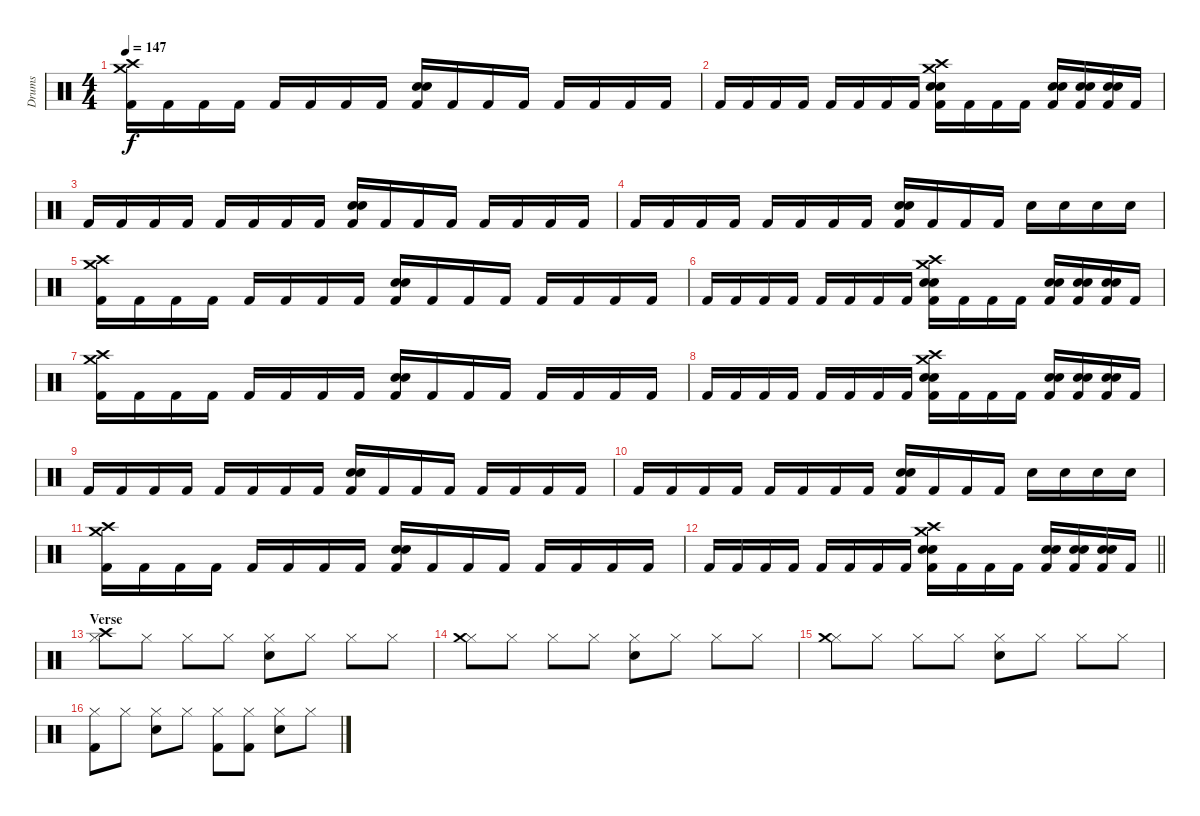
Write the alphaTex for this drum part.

\track ("Drums" "Drums") {instrument percussion}
\staff
\articulation defaults
\ts (4 4)
\tempo 147
\clef neutral
\ks c
("Crash high (hit)" "Kick (hit) 2" "Crash medium (hit)").16{dy f} "Kick (hit) 2".16 "Kick (hit) 2".16 "Kick (hit) 2".16 "Kick (hit) 2".16 "Kick (hit) 2".16 "Kick (hit) 2".16 "Kick (hit) 2".16 ("Kick (hit) 2" "Electric Snare (hit)" "Snare (hit) 2").16 "Kick (hit) 2".16 "Kick (hit) 2".16 "Kick (hit) 2".16 "Kick (hit) 2".16 "Kick (hit) 2".16 "Kick (hit) 2".16 "Kick (hit) 2".16 |
"Kick (hit) 2".16 "Kick (hit) 2".16 "Kick (hit) 2".16 "Kick (hit) 2".16 "Kick (hit) 2".16 "Kick (hit) 2".16 "Kick (hit) 2".16 "Kick (hit) 2".16 ("Crash medium (hit)" "Crash high (hit)" "Kick (hit) 2" "Electric Snare (hit)" "Snare (hit) 2").16 "Kick (hit) 2".16 "Kick (hit) 2".16 "Kick (hit) 2".16 ("Kick (hit) 2" "Electric Snare (hit)" "Snare (hit) 2").16 ("Kick (hit) 2" "Electric Snare (hit)" "Snare (hit) 2").16 ("Kick (hit) 2" "Electric Snare (hit)" "Snare (hit) 2").16 "Kick (hit) 2".16 |
"Kick (hit) 2".16 "Kick (hit) 2".16 "Kick (hit) 2".16 "Kick (hit) 2".16 "Kick (hit) 2".16 "Kick (hit) 2".16 "Kick (hit) 2".16 "Kick (hit) 2".16 ("Kick (hit) 2" "Electric Snare (hit)" "Snare (hit) 2").16 "Kick (hit) 2".16 "Kick (hit) 2".16 "Kick (hit) 2".16 "Kick (hit) 2".16 "Kick (hit) 2".16 "Kick (hit) 2".16 "Kick (hit) 2".16 |
"Kick (hit) 2".16 "Kick (hit) 2".16 "Kick (hit) 2".16 "Kick (hit) 2".16 "Kick (hit) 2".16 "Kick (hit) 2".16 "Kick (hit) 2".16 "Kick (hit) 2".16 ("Kick (hit) 2" "Electric Snare (hit)" "Snare (hit) 2").16 "Kick (hit) 2".16 "Kick (hit) 2".16 "Kick (hit) 2".16 "Snare (hit) 2".16 "Snare (hit) 2".16 "Snare (hit) 2".16 "Snare (hit) 2".16 |
("Crash high (hit)" "Kick (hit) 2" "Crash medium (hit)").16 "Kick (hit) 2".16 "Kick (hit) 2".16 "Kick (hit) 2".16 "Kick (hit) 2".16 "Kick (hit) 2".16 "Kick (hit) 2".16 "Kick (hit) 2".16 ("Kick (hit) 2" "Electric Snare (hit)" "Snare (hit) 2").16 "Kick (hit) 2".16 "Kick (hit) 2".16 "Kick (hit) 2".16 "Kick (hit) 2".16 "Kick (hit) 2".16 "Kick (hit) 2".16 "Kick (hit) 2".16 |
"Kick (hit) 2".16 "Kick (hit) 2".16 "Kick (hit) 2".16 "Kick (hit) 2".16 "Kick (hit) 2".16 "Kick (hit) 2".16 "Kick (hit) 2".16 "Kick (hit) 2".16 ("Crash medium (hit)" "Crash high (hit)" "Kick (hit) 2" "Electric Snare (hit)" "Snare (hit) 2").16 "Kick (hit) 2".16 "Kick (hit) 2".16 "Kick (hit) 2".16 ("Kick (hit) 2" "Electric Snare (hit)" "Snare (hit) 2").16 ("Kick (hit) 2" "Electric Snare (hit)" "Snare (hit) 2").16 ("Kick (hit) 2" "Electric Snare (hit)" "Snare (hit) 2").16 "Kick (hit) 2".16 |
("Crash high (hit)" "Kick (hit) 2" "Crash medium (hit)").16 "Kick (hit) 2".16 "Kick (hit) 2".16 "Kick (hit) 2".16 "Kick (hit) 2".16 "Kick (hit) 2".16 "Kick (hit) 2".16 "Kick (hit) 2".16 ("Kick (hit) 2" "Electric Snare (hit)" "Snare (hit) 2").16 "Kick (hit) 2".16 "Kick (hit) 2".16 "Kick (hit) 2".16 "Kick (hit) 2".16 "Kick (hit) 2".16 "Kick (hit) 2".16 "Kick (hit) 2".16 |
"Kick (hit) 2".16 "Kick (hit) 2".16 "Kick (hit) 2".16 "Kick (hit) 2".16 "Kick (hit) 2".16 "Kick (hit) 2".16 "Kick (hit) 2".16 "Kick (hit) 2".16 ("Crash medium (hit)" "Crash high (hit)" "Kick (hit) 2" "Electric Snare (hit)" "Snare (hit) 2").16 "Kick (hit) 2".16 "Kick (hit) 2".16 "Kick (hit) 2".16 ("Kick (hit) 2" "Electric Snare (hit)" "Snare (hit) 2").16 ("Kick (hit) 2" "Electric Snare (hit)" "Snare (hit) 2").16 ("Kick (hit) 2" "Electric Snare (hit)" "Snare (hit) 2").16 "Kick (hit) 2".16 |
"Kick (hit) 2".16 "Kick (hit) 2".16 "Kick (hit) 2".16 "Kick (hit) 2".16 "Kick (hit) 2".16 "Kick (hit) 2".16 "Kick (hit) 2".16 "Kick (hit) 2".16 ("Kick (hit) 2" "Electric Snare (hit)" "Snare (hit) 2").16 "Kick (hit) 2".16 "Kick (hit) 2".16 "Kick (hit) 2".16 "Kick (hit) 2".16 "Kick (hit) 2".16 "Kick (hit) 2".16 "Kick (hit) 2".16 |
"Kick (hit) 2".16 "Kick (hit) 2".16 "Kick (hit) 2".16 "Kick (hit) 2".16 "Kick (hit) 2".16 "Kick (hit) 2".16 "Kick (hit) 2".16 "Kick (hit) 2".16 ("Kick (hit) 2" "Electric Snare (hit)" "Snare (hit) 2").16 "Kick (hit) 2".16 "Kick (hit) 2".16 "Kick (hit) 2".16 "Snare (hit) 2".16 "Snare (hit) 2".16 "Snare (hit) 2".16 "Snare (hit) 2".16 |
("Crash high (hit)" "Kick (hit) 2" "Crash medium (hit)").16 "Kick (hit) 2".16 "Kick (hit) 2".16 "Kick (hit) 2".16 "Kick (hit) 2".16 "Kick (hit) 2".16 "Kick (hit) 2".16 "Kick (hit) 2".16 ("Kick (hit) 2" "Electric Snare (hit)" "Snare (hit) 2").16 "Kick (hit) 2".16 "Kick (hit) 2".16 "Kick (hit) 2".16 "Kick (hit) 2".16 "Kick (hit) 2".16 "Kick (hit) 2".16 "Kick (hit) 2".16 |
\barLineRight lightlight "Kick (hit) 2".16 "Kick (hit) 2".16 "Kick (hit) 2".16 "Kick (hit) 2".16 "Kick (hit) 2".16 "Kick (hit) 2".16 "Kick (hit) 2".16 "Kick (hit) 2".16
("Crash medium (hit)" "Crash high (hit)" "Kick (hit) 2" "Electric Snare (hit)" "Snare (hit) 2").16 "Kick (hit) 2".16 "Kick (hit) 2".16 "Kick (hit) 2".16 ("Kick (hit) 2" "Electric Snare (hit)" "Snare (hit) 2").16 ("Kick (hit) 2" "Electric Snare (hit)" "Snare (hit) 2").16 ("Kick (hit) 2" "Electric Snare (hit)" "Snare (hit) 2").16 "Kick (hit) 2".16 |
\section ("" "Verse")
("Hi-Hat (closed)" "Crash high (hit)").8 "Hi-Hat (closed)".8 "Hi-Hat (closed)".8 "Hi-Hat (closed)".8 ("Hi-Hat (closed)" "Snare (hit) 2").8 "Hi-Hat (closed)".8 "Hi-Hat (closed)".8 "Hi-Hat (closed)".8 |
("Hi-Hat (closed)" "Crash medium (hit)").8 "Hi-Hat (closed)".8 "Hi-Hat (closed)".8 "Hi-Hat (closed)".8 ("Hi-Hat (closed)" "Snare (hit) 2").8 "Hi-Hat (closed)".8 "Hi-Hat (closed)".8 "Hi-Hat (closed)".8 |
("Hi-Hat (closed)" "Crash medium (hit)").8 "Hi-Hat (closed)".8 "Hi-Hat (closed)".8 "Hi-Hat (closed)".8 ("Hi-Hat (closed)" "Snare (hit) 2").8 "Hi-Hat (closed)".8 "Hi-Hat (closed)".8 "Hi-Hat (closed)".8 |
("Hi-Hat (closed)" "Kick (hit) 2").8 "Hi-Hat (closed)".8 ("Hi-Hat (closed)" "Snare (hit) 2").8 "Hi-Hat (closed)".8 ("Hi-Hat (closed)" "Kick (hit) 2").8 ("Hi-Hat (closed)" "Kick (hit) 2").8 ("Hi-Hat (closed)" "Snare (hit) 2").8 "Hi-Hat (closed)".8
